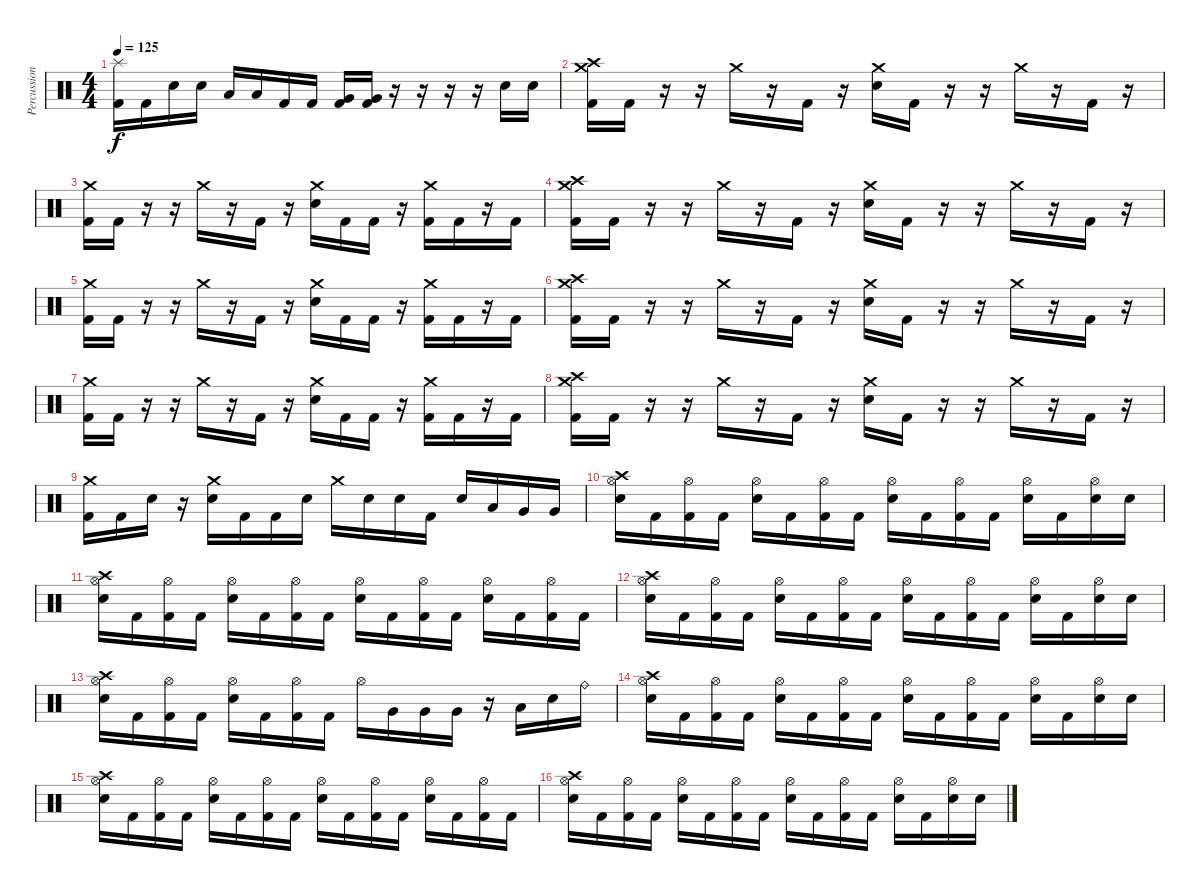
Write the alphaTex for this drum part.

\track ("Percussion" "Percussion") {instrument percussion}
\staff {score}
\articulation defaults
\ts (4 4)
\tempo 125
\clef neutral
\ks c
("Splash (hit)" "Kick (hit) 2").16{dy f} "Kick (hit) 2".16 "Electric Snare (hit)".16 "Electric Snare (hit)".16 "Low Tom (hit)".16 "Low Tom (hit)".16 "Kick (hit) 2".16 "Kick (hit) 2".16 ("Very Low Tom (hit)" "Kick (hit) 2").16 ("Very Low Tom (hit)" "Kick (hit) 2").16 r.16 r.16 r.16 r.16 "Electric Snare (hit)".16 "Electric Snare (hit)".16 |
("Crash high (hit)" "Crash medium (hit)" "Kick (hit) 2").16 "Kick (hit) 2".16 r.16 r.16 "Crash medium (hit)".16 r.16 "Kick (hit) 2".16 r.16 ("Crash medium (hit)" "Electric Snare (hit)").16 "Kick (hit) 2".16 r.16 r.16 "Crash medium (hit)".16 r.16 "Kick (hit) 2".16 r.16 |
("Crash medium (hit)" "Kick (hit) 2").16 "Kick (hit) 2".16 r.16 r.16 "Crash medium (hit)".16 r.16 "Kick (hit) 2".16 r.16 ("Crash medium (hit)" "Electric Snare (hit)").16 "Kick (hit) 2".16 "Kick (hit) 2".16 r.16 ("Crash medium (hit)" "Kick (hit) 2").16 "Kick (hit) 2".16 r.16 "Kick (hit) 2".16 |
("Crash high (hit)" "Crash medium (hit)" "Kick (hit) 2").16 "Kick (hit) 2".16 r.16 r.16 "Crash medium (hit)".16 r.16 "Kick (hit) 2".16 r.16 ("Crash medium (hit)" "Electric Snare (hit)").16 "Kick (hit) 2".16 r.16 r.16 "Crash medium (hit)".16 r.16 "Kick (hit) 2".16 r.16 |
("Crash medium (hit)" "Kick (hit) 2").16 "Kick (hit) 2".16 r.16 r.16 "Crash medium (hit)".16 r.16 "Kick (hit) 2".16 r.16 ("Crash medium (hit)" "Electric Snare (hit)").16 "Kick (hit) 2".16 "Kick (hit) 2".16 r.16 ("Crash medium (hit)" "Kick (hit) 2").16 "Kick (hit) 2".16 r.16 "Kick (hit) 2".16 |
("Crash high (hit)" "Crash medium (hit)" "Kick (hit) 2").16 "Kick (hit) 2".16 r.16 r.16 "Crash medium (hit)".16 r.16 "Kick (hit) 2".16 r.16 ("Crash medium (hit)" "Electric Snare (hit)").16 "Kick (hit) 2".16 r.16 r.16 "Crash medium (hit)".16 r.16 "Kick (hit) 2".16 r.16 |
("Crash medium (hit)" "Kick (hit) 2").16 "Kick (hit) 2".16 r.16 r.16 "Crash medium (hit)".16 r.16 "Kick (hit) 2".16 r.16 ("Crash medium (hit)" "Electric Snare (hit)").16 "Kick (hit) 2".16 "Kick (hit) 2".16 r.16 ("Crash medium (hit)" "Kick (hit) 2").16 "Kick (hit) 2".16 r.16 "Kick (hit) 2".16 |
("Crash high (hit)" "Crash medium (hit)" "Kick (hit) 2").16 "Kick (hit) 2".16 r.16 r.16 "Crash medium (hit)".16 r.16 "Kick (hit) 2".16 r.16 ("Crash medium (hit)" "Electric Snare (hit)").16 "Kick (hit) 2".16 r.16 r.16 "Crash medium (hit)".16 r.16 "Kick (hit) 2".16 r.16 |
("Crash medium (hit)" "Kick (hit) 2").16 "Kick (hit) 2".16 "Electric Snare (hit)".16 r.16 ("Crash medium (hit)" "Electric Snare (hit)").16 "Kick (hit) 2".16 "Kick (hit) 2".16 "Electric Snare (hit)".16 "Crash medium (hit)".16 "Electric Snare (hit)".16 "Electric Snare (hit)".16 "Kick (hit) 2".16 "Electric Snare (hit)".16 "Low Tom (hit)".16 "Very Low Tom (hit)".16 "Very Low Tom (hit)".16 |
("Crash high (hit)" "Hi-Hat (open)" "Electric Snare (hit)").16 "Kick (hit) 2".16 ("Hi-Hat (open)" "Kick (hit) 2").16 "Kick (hit) 2".16 ("Hi-Hat (open)" "Electric Snare (hit)").16 "Kick (hit) 2".16 ("Hi-Hat (open)" "Kick (hit) 2").16 "Kick (hit) 2".16 ("Hi-Hat (open)" "Electric Snare (hit)").16 "Kick (hit) 2".16 ("Hi-Hat (open)" "Kick (hit) 2").16 "Kick (hit) 2".16 ("Hi-Hat (open)" "Electric Snare (hit)").16 "Kick (hit) 2".16 ("Hi-Hat (open)" "Electric Snare (hit)").16 "Electric Snare (hit)".16 |
("Crash high (hit)" "Hi-Hat (open)" "Electric Snare (hit)").16 "Kick (hit) 2".16 ("Hi-Hat (open)" "Kick (hit) 2").16 "Kick (hit) 2".16 ("Hi-Hat (open)" "Electric Snare (hit)").16 "Kick (hit) 2".16 ("Hi-Hat (open)" "Kick (hit) 2").16 "Kick (hit) 2".16 ("Hi-Hat (open)" "Electric Snare (hit)").16 "Kick (hit) 2".16 ("Hi-Hat (open)" "Kick (hit) 2").16 "Kick (hit) 2".16 ("Hi-Hat (open)" "Electric Snare (hit)").16 "Kick (hit) 2".16 ("Hi-Hat (open)" "Kick (hit) 2").16 "Kick (hit) 2".16 |
("Crash high (hit)" "Hi-Hat (open)" "Electric Snare (hit)").16 "Kick (hit) 2".16 ("Hi-Hat (open)" "Kick (hit) 2").16 "Kick (hit) 2".16 ("Hi-Hat (open)" "Electric Snare (hit)").16 "Kick (hit) 2".16 ("Hi-Hat (open)" "Kick (hit) 2").16 "Kick (hit) 2".16 ("Hi-Hat (open)" "Electric Snare (hit)").16 "Kick (hit) 2".16 ("Hi-Hat (open)" "Kick (hit) 2").16 "Kick (hit) 2".16 ("Hi-Hat (open)" "Electric Snare (hit)").16 "Kick (hit) 2".16 ("Hi-Hat (open)" "Electric Snare (hit)").16 "Electric Snare (hit)".16 |
("Crash high (hit)" "Hi-Hat (open)" "Electric Snare (hit)").16 "Kick (hit) 2".16 ("Hi-Hat (open)" "Kick (hit) 2").16 "Kick (hit) 2".16 ("Hi-Hat (open)" "Electric Snare (hit)").16 "Kick (hit) 2".16 ("Hi-Hat (open)" "Kick (hit) 2").16 "Kick (hit) 2".16 "Hi-Hat (open)".16 "Very Low Tom (hit)".16 "Very Low Tom (hit)".16 "Very Low Tom (hit)".16 r.16 "Low Floor Tom (hit)".16 "Electric Snare (hit)".16 "Ride (bell)".16 |
("Crash high (hit)" "Hi-Hat (open)" "Electric Snare (hit)").16 "Kick (hit) 2".16 ("Hi-Hat (open)" "Kick (hit) 2").16 "Kick (hit) 2".16 ("Hi-Hat (open)" "Electric Snare (hit)").16 "Kick (hit) 2".16 ("Hi-Hat (open)" "Kick (hit) 2").16 "Kick (hit) 2".16 ("Hi-Hat (open)" "Electric Snare (hit)").16 "Kick (hit) 2".16 ("Hi-Hat (open)" "Kick (hit) 2").16 "Kick (hit) 2".16 ("Hi-Hat (open)" "Electric Snare (hit)").16 "Kick (hit) 2".16 ("Hi-Hat (open)" "Electric Snare (hit)").16 "Electric Snare (hit)".16 |
("Crash high (hit)" "Hi-Hat (open)" "Electric Snare (hit)").16 "Kick (hit) 2".16 ("Hi-Hat (open)" "Kick (hit) 2").16 "Kick (hit) 2".16 ("Hi-Hat (open)" "Electric Snare (hit)").16 "Kick (hit) 2".16 ("Hi-Hat (open)" "Kick (hit) 2").16 "Kick (hit) 2".16 ("Hi-Hat (open)" "Electric Snare (hit)").16 "Kick (hit) 2".16 ("Hi-Hat (open)" "Kick (hit) 2").16 "Kick (hit) 2".16 ("Hi-Hat (open)" "Electric Snare (hit)").16 "Kick (hit) 2".16 ("Hi-Hat (open)" "Kick (hit) 2").16 "Kick (hit) 2".16 |
("Crash high (hit)" "Hi-Hat (open)" "Electric Snare (hit)").16 "Kick (hit) 2".16 ("Hi-Hat (open)" "Kick (hit) 2").16 "Kick (hit) 2".16 ("Hi-Hat (open)" "Electric Snare (hit)").16 "Kick (hit) 2".16 ("Hi-Hat (open)" "Kick (hit) 2").16 "Kick (hit) 2".16 ("Hi-Hat (open)" "Electric Snare (hit)").16 "Kick (hit) 2".16 ("Hi-Hat (open)" "Kick (hit) 2").16 "Kick (hit) 2".16 ("Hi-Hat (open)" "Electric Snare (hit)").16 "Kick (hit) 2".16 ("Hi-Hat (open)" "Electric Snare (hit)").16 "Electric Snare (hit)".16
